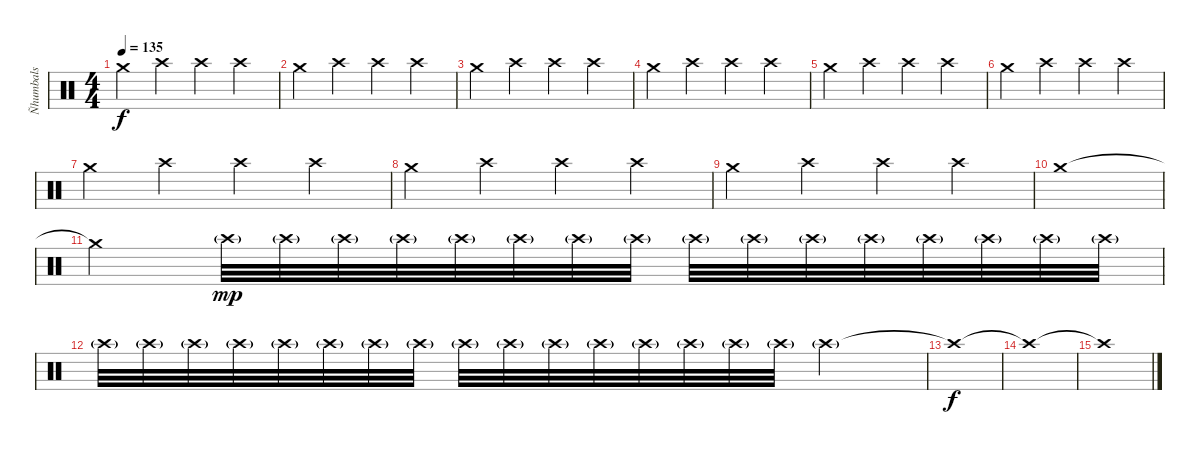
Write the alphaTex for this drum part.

\track ("Ñhumbals" "Ñhumbals") {instrument percussion}
\staff {score}
\articulation defaults
\ts (4 4)
\tempo 135
\clef neutral
\ks c "Crash medium (hit)".4{dy f} "Crash high (hit)".4 "Crash high (hit)".4 "Crash high (hit)".4
|
"Crash medium (hit)".4 "Crash high (hit)".4 "Crash high (hit)".4 "Crash high (hit)".4 |
"Crash medium (hit)".4 "Crash high (hit)".4 "Crash high (hit)".4 "Crash high (hit)".4 |
"Crash medium (hit)".4 "Crash high (hit)".4 "Crash high (hit)".4 "Crash high (hit)".4 |
"Crash medium (hit)".4 "Crash high (hit)".4 "Crash high (hit)".4 "Crash high (hit)".4 |
"Crash medium (hit)".4 "Crash high (hit)".4 "Crash high (hit)".4 "Crash high (hit)".4 |
"Crash medium (hit)".4 "Crash high (hit)".4 "Crash high (hit)".4 "Crash high (hit)".4 |
"Crash medium (hit)".4 "Crash high (hit)".4 "Crash high (hit)".4 "Crash high (hit)".4 |
"Crash medium (hit)".4 "Crash high (hit)".4 "Crash high (hit)".4 "Crash high (hit)".4 |
"Crash medium (hit)".1 |
"Crash medium (hit)"{t}.2 "Crash high (hit)"{g}.32{dy mp} "Crash high (hit)"{g}.32 "Crash high (hit)"{g}.32 "Crash high (hit)"{g}.32 "Crash high (hit)"{g}.32 "Crash high (hit)"{g}.32 "Crash high (hit)"{g}.32 "Crash high (hit)"{g}.32 "Crash high (hit)"{g}.32 "Crash high (hit)"{g}.32 "Crash high (hit)"{g}.32 "Crash high (hit)"{g}.32 "Crash high (hit)"{g}.32 "Crash high (hit)"{g}.32 "Crash high (hit)"{g}.32 "Crash high (hit)"{g}.32 |
"Crash high (hit)"{g}.32 "Crash high (hit)"{g}.32 "Crash high (hit)"{g}.32 "Crash high (hit)"{g}.32 "Crash high (hit)"{g}.32 "Crash high (hit)"{g}.32 "Crash high (hit)"{g}.32 "Crash high (hit)"{g}.32 "Crash high (hit)"{g}.32 "Crash high (hit)"{g}.32 "Crash high (hit)"{g}.32 "Crash high (hit)"{g}.32 "Crash high (hit)"{g}.32 "Crash high (hit)"{g}.32 "Crash high (hit)"{g}.32 "Crash high (hit)"{g}.32 "Crash high (hit)"{g}.2 |
"Crash high (hit)"{t}.1{dy f} |
"Crash high (hit)"{t}.1 |
"Crash high (hit)"{t}.1
